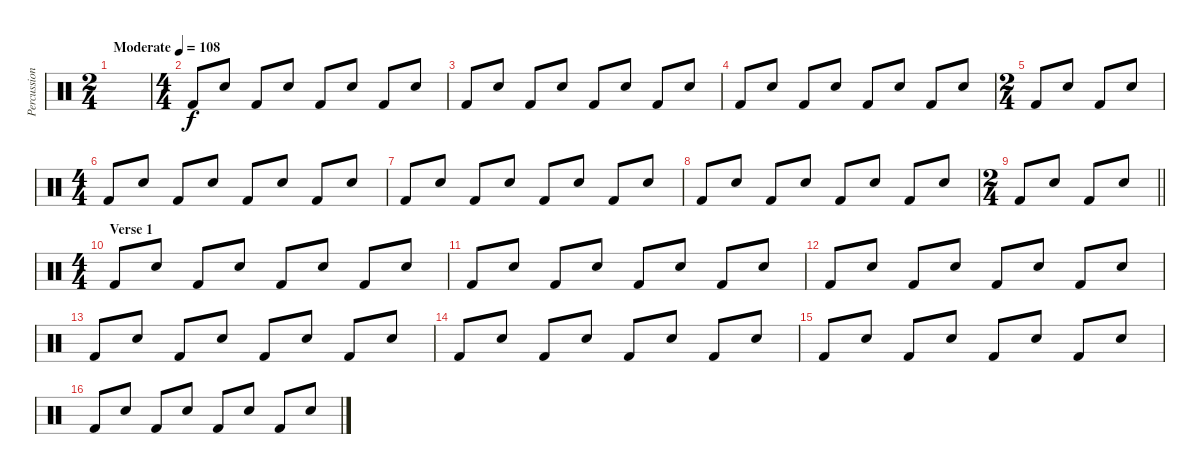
\track ("Percussion" "Percussion") {instrument percussion}
\staff {score}
\articulation defaults
\ts (2 4)
\tempo (108 "Moderate")
\clef neutral
\ks c
|
\ts (4 4)
"Kick (hit) 2".8 "Snare (hit) 2".8 "Kick (hit) 2".8 "Snare (hit) 2".8 "Kick (hit) 2".8 "Snare (hit) 2".8 "Kick (hit) 2".8 "Snare (hit) 2".8 |
"Kick (hit) 2".8 "Snare (hit) 2".8 "Kick (hit) 2".8 "Snare (hit) 2".8 "Kick (hit) 2".8 "Snare (hit) 2".8 "Kick (hit) 2".8 "Snare (hit) 2".8 |
"Kick (hit) 2".8 "Snare (hit) 2".8 "Kick (hit) 2".8 "Snare (hit) 2".8 "Kick (hit) 2".8 "Snare (hit) 2".8 "Kick (hit) 2".8 "Snare (hit) 2".8 |
\ts (2 4)
"Kick (hit) 2".8 "Snare (hit) 2".8 "Kick (hit) 2".8 "Snare (hit) 2".8 |
\ts (4 4)
"Kick (hit) 2".8 "Snare (hit) 2".8 "Kick (hit) 2".8 "Snare (hit) 2".8 "Kick (hit) 2".8 "Snare (hit) 2".8 "Kick (hit) 2".8 "Snare (hit) 2".8 |
"Kick (hit) 2".8 "Snare (hit) 2".8 "Kick (hit) 2".8 "Snare (hit) 2".8 "Kick (hit) 2".8 "Snare (hit) 2".8 "Kick (hit) 2".8 "Snare (hit) 2".8 |
"Kick (hit) 2".8 "Snare (hit) 2".8 "Kick (hit) 2".8 "Snare (hit) 2".8 "Kick (hit) 2".8 "Snare (hit) 2".8 "Kick (hit) 2".8 "Snare (hit) 2".8 |
\ts (2 4)
\barLineRight lightlight "Kick (hit) 2".8 "Snare (hit) 2".8 "Kick (hit) 2".8 "Snare (hit) 2".8
|
\ts (4 4)
\section ("" "Verse 1")
"Kick (hit) 2".8 "Snare (hit) 2".8 "Kick (hit) 2".8 "Snare (hit) 2".8 "Kick (hit) 2".8 "Snare (hit) 2".8 "Kick (hit) 2".8 "Snare (hit) 2".8 |
"Kick (hit) 2".8 "Snare (hit) 2".8 "Kick (hit) 2".8 "Snare (hit) 2".8 "Kick (hit) 2".8 "Snare (hit) 2".8 "Kick (hit) 2".8 "Snare (hit) 2".8 |
"Kick (hit) 2".8 "Snare (hit) 2".8 "Kick (hit) 2".8 "Snare (hit) 2".8 "Kick (hit) 2".8 "Snare (hit) 2".8 "Kick (hit) 2".8 "Snare (hit) 2".8 |
"Kick (hit) 2".8 "Snare (hit) 2".8 "Kick (hit) 2".8 "Snare (hit) 2".8 "Kick (hit) 2".8 "Snare (hit) 2".8 "Kick (hit) 2".8 "Snare (hit) 2".8 |
"Kick (hit) 2".8 "Snare (hit) 2".8 "Kick (hit) 2".8 "Snare (hit) 2".8 "Kick (hit) 2".8 "Snare (hit) 2".8 "Kick (hit) 2".8 "Snare (hit) 2".8 |
"Kick (hit) 2".8 "Snare (hit) 2".8 "Kick (hit) 2".8 "Snare (hit) 2".8 "Kick (hit) 2".8 "Snare (hit) 2".8 "Kick (hit) 2".8 "Snare (hit) 2".8 |
"Kick (hit) 2".8 "Snare (hit) 2".8 "Kick (hit) 2".8 "Snare (hit) 2".8 "Kick (hit) 2".8 "Snare (hit) 2".8 "Kick (hit) 2".8 "Snare (hit) 2".8
